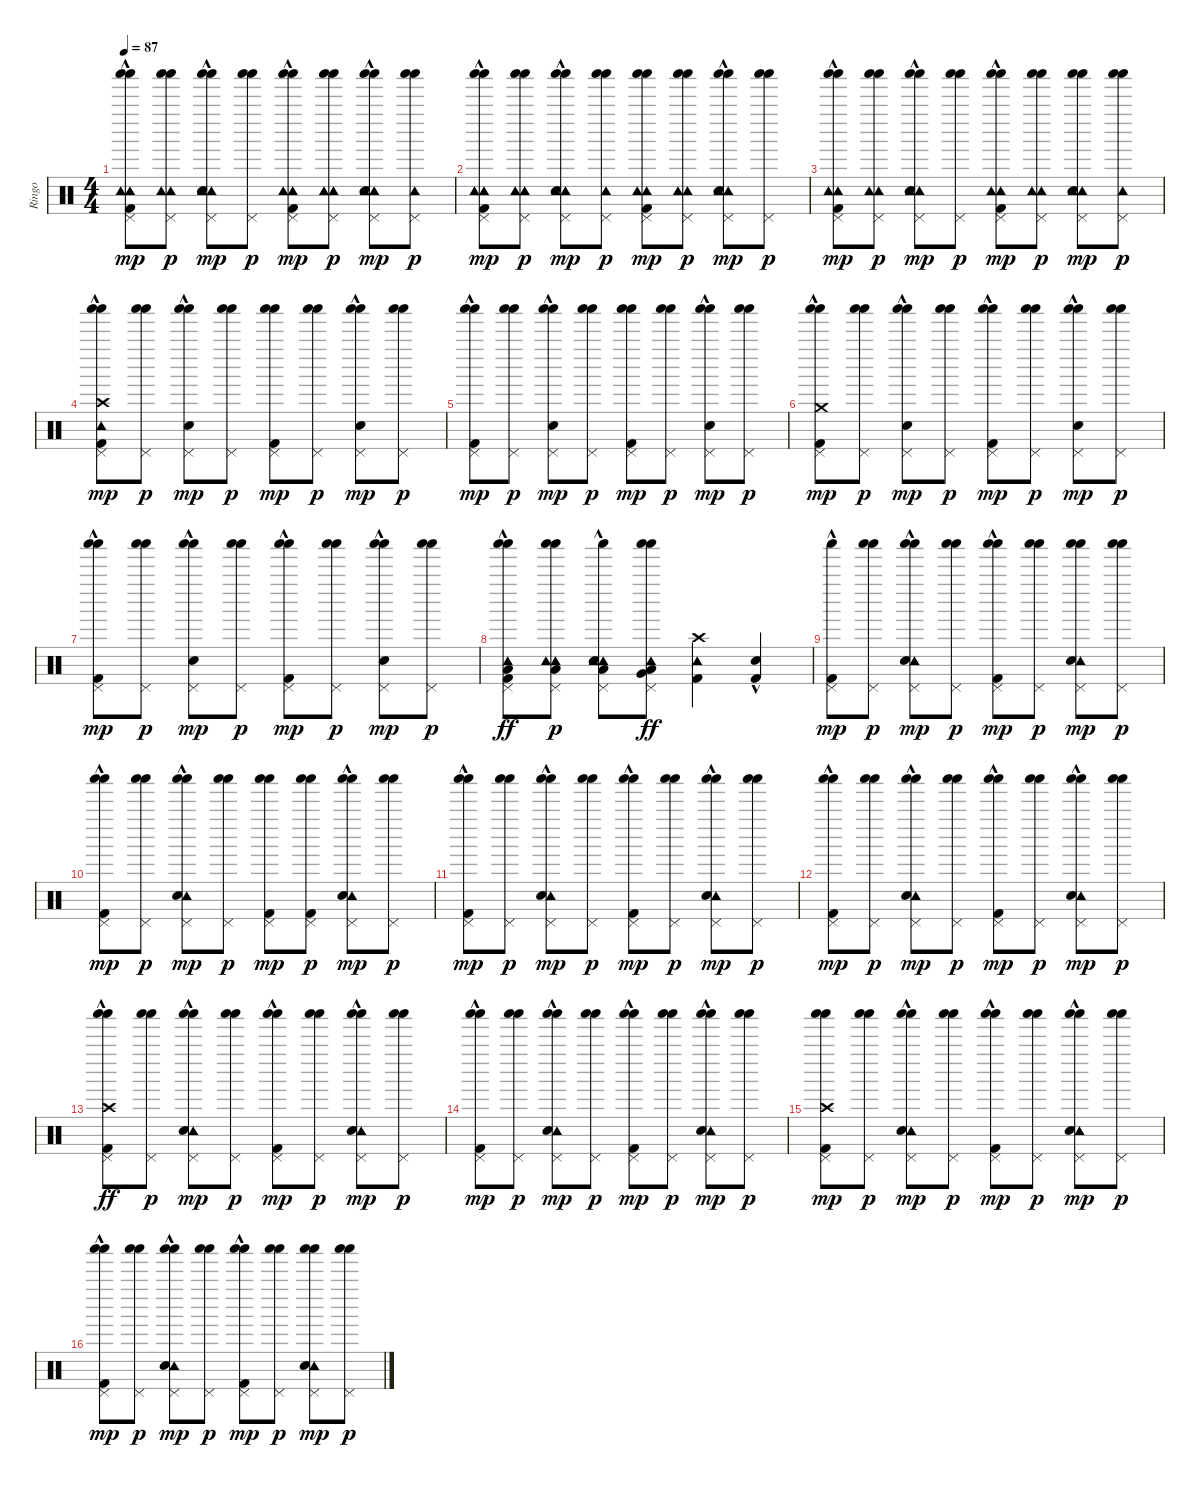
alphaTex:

\track ("Ringo" "Ringo") {instrument percussion}
\staff {score}
\articulation defaults
\ts (4 4)
\tempo 87
\clef neutral
\ks c
("Shaker (hit)" "Tambourine (hit)" "Kick (hit) 2"{hac} "Pedal Hi-Hat (hit)" "Tambourine (hit)" "Shaker (hit)").8{dy mp} ("Shaker (hit)" "Tambourine (hit)" "Pedal Hi-Hat (hit)" "Tambourine (hit)" "Shaker (hit)").8{dy p} ("Shaker (hit)" "Tambourine (hit)" "Tambourine (hit)"{hac} "Snare (hit) 2"{hac} "Pedal Hi-Hat (hit)" "Shaker (hit)").8{dy mp} ("Shaker (hit)" "Pedal Hi-Hat (hit)" "Shaker (hit)").8{dy p} ("Shaker (hit)" "Tambourine (hit)" "Kick (hit) 2"{hac} "Pedal Hi-Hat (hit)" "Tambourine (hit)" "Shaker (hit)").8{dy mp} ("Shaker (hit)" "Tambourine (hit)" "Pedal Hi-Hat (hit)" "Tambourine (hit)" "Shaker (hit)").8{dy p} ("Shaker (hit)" "Tambourine (hit)" "Tambourine (hit)" "Snare (hit) 2"{hac} "Pedal Hi-Hat (hit)" "Shaker (hit)").8{dy mp} ("Shaker (hit)" "Pedal Hi-Hat (hit)" "Tambourine (hit)" "Shaker (hit)").8{dy p} |
("Shaker (hit)" "Tambourine (hit)" "Kick (hit) 2"{hac} "Pedal Hi-Hat (hit)" "Tambourine (hit)" "Shaker (hit)").8{dy mp} ("Shaker (hit)" "Tambourine (hit)" "Pedal Hi-Hat (hit)" "Tambourine (hit)" "Shaker (hit)").8{dy p} ("Shaker (hit)" "Tambourine (hit)" "Tambourine (hit)" "Snare (hit) 2"{hac} "Pedal Hi-Hat (hit)" "Shaker (hit)").8{dy mp} ("Shaker (hit)" "Pedal Hi-Hat (hit)" "Tambourine (hit)" "Shaker (hit)").8{dy p} ("Shaker (hit)" "Tambourine (hit)" "Kick (hit) 2" "Pedal Hi-Hat (hit)" "Tambourine (hit)" "Shaker (hit)").8{dy mp} ("Shaker (hit)" "Tambourine (hit)" "Pedal Hi-Hat (hit)" "Tambourine (hit)" "Shaker (hit)").8{dy p} ("Shaker (hit)" "Tambourine (hit)" "Tambourine (hit)"{hac} "Snare (hit) 2"{hac} "Pedal Hi-Hat (hit)" "Shaker (hit)").8{dy mp} ("Shaker (hit)" "Pedal Hi-Hat (hit)" "Shaker (hit)").8{dy p} |
("Shaker (hit)" "Tambourine (hit)" "Kick (hit) 2"{hac} "Pedal Hi-Hat (hit)" "Tambourine (hit)" "Shaker (hit)").8{dy mp} ("Shaker (hit)" "Tambourine (hit)" "Pedal Hi-Hat (hit)" "Tambourine (hit)" "Shaker (hit)").8{dy p} ("Shaker (hit)" "Tambourine (hit)" "Tambourine (hit)"{hac} "Snare (hit) 2"{hac} "Pedal Hi-Hat (hit)" "Shaker (hit)").8{dy mp} ("Shaker (hit)" "Pedal Hi-Hat (hit)" "Shaker (hit)").8{dy p} ("Shaker (hit)" "Tambourine (hit)" "Kick (hit) 2"{hac} "Pedal Hi-Hat (hit)" "Tambourine (hit)" "Shaker (hit)").8{dy mp} ("Shaker (hit)" "Tambourine (hit)" "Pedal Hi-Hat (hit)" "Tambourine (hit)" "Shaker (hit)").8{dy p} ("Shaker (hit)" "Tambourine (hit)" "Tambourine (hit)" "Snare (hit) 2" "Pedal Hi-Hat (hit)" "Shaker (hit)").8{dy mp} ("Shaker (hit)" "Pedal Hi-Hat (hit)" "Tambourine (hit)" "Shaker (hit)").8{dy p} |
("Shaker (hit)" "Tambourine (hit)" "Pedal Hi-Hat (hit)" "Crash high (hit)" "Kick (hit) 2"{hac} "Shaker (hit)").8{dy mp} ("Shaker (hit)" "Pedal Hi-Hat (hit)" "Shaker (hit)").8{dy p} ("Shaker (hit)" "Pedal Hi-Hat (hit)" "Snare (hit) 2"{hac} "Shaker (hit)").8{dy mp} ("Shaker (hit)" "Pedal Hi-Hat (hit)" "Shaker (hit)").8{dy p} ("Shaker (hit)" "Pedal Hi-Hat (hit)" "Kick (hit) 2" "Shaker (hit)").8{dy mp} ("Shaker (hit)" "Pedal Hi-Hat (hit)" "Shaker (hit)").8{dy p} ("Shaker (hit)" "Pedal Hi-Hat (hit)" "Snare (hit) 2"{hac} "Shaker (hit)").8{dy mp} ("Shaker (hit)" "Pedal Hi-Hat (hit)" "Shaker (hit)").8{dy p} |
("Shaker (hit)" "Pedal Hi-Hat (hit)" "Kick (hit) 2"{hac} "Shaker (hit)").8{dy mp} ("Shaker (hit)" "Pedal Hi-Hat (hit)" "Shaker (hit)").8{dy p} ("Shaker (hit)" "Pedal Hi-Hat (hit)" "Snare (hit) 2"{hac} "Shaker (hit)").8{dy mp} ("Shaker (hit)" "Pedal Hi-Hat (hit)" "Shaker (hit)").8{dy p} ("Shaker (hit)" "Pedal Hi-Hat (hit)" "Kick (hit) 2" "Shaker (hit)").8{dy mp} ("Shaker (hit)" "Pedal Hi-Hat (hit)" "Shaker (hit)").8{dy p} ("Shaker (hit)" "Pedal Hi-Hat (hit)" "Snare (hit) 2"{hac} "Shaker (hit)").8{dy mp} ("Shaker (hit)" "Pedal Hi-Hat (hit)" "Shaker (hit)").8{dy p} |
("Shaker (hit)" "Crash medium (hit)"{hac} "Pedal Hi-Hat (hit)" "Kick (hit) 2"{hac} "Shaker (hit)").8{dy mp} ("Shaker (hit)" "Pedal Hi-Hat (hit)" "Shaker (hit)").8{dy p} ("Shaker (hit)" "Pedal Hi-Hat (hit)" "Snare (hit) 2"{hac} "Shaker (hit)").8{dy mp} ("Shaker (hit)" "Pedal Hi-Hat (hit)" "Shaker (hit)").8{dy p} ("Shaker (hit)" "Pedal Hi-Hat (hit)" "Kick (hit) 2"{hac} "Shaker (hit)").8{dy mp} ("Shaker (hit)" "Pedal Hi-Hat (hit)" "Shaker (hit)").8{dy p} ("Shaker (hit)" "Pedal Hi-Hat (hit)" "Snare (hit) 2"{hac} "Shaker (hit)").8{dy mp} ("Shaker (hit)" "Pedal Hi-Hat (hit)" "Shaker (hit)").8{dy p} |
("Shaker (hit)" "Pedal Hi-Hat (hit)" "Kick (hit) 2"{hac} "Shaker (hit)").8{dy mp} ("Shaker (hit)" "Pedal Hi-Hat (hit)" "Shaker (hit)").8{dy p} ("Shaker (hit)" "Pedal Hi-Hat (hit)" "Snare (hit) 2"{hac} "Shaker (hit)").8{dy mp} ("Shaker (hit)" "Pedal Hi-Hat (hit)" "Shaker (hit)").8{dy p} ("Shaker (hit)" "Pedal Hi-Hat (hit)" "Kick (hit) 2"{hac} "Shaker (hit)").8{dy mp} ("Shaker (hit)" "Pedal Hi-Hat (hit)" "Shaker (hit)").8{dy p} ("Shaker (hit)" "Pedal Hi-Hat (hit)" "Snare (hit) 2"{hac} "Shaker (hit)").8{dy mp} ("Shaker (hit)" "Pedal Hi-Hat (hit)" "Shaker (hit)").8{dy p} |
("Shaker (hit)" "Tambourine (hit)" "Shaker (hit)" "Low Tom (hit)" "Pedal Hi-Hat (hit)" "Kick (hit) 2"{hac}).8{dy ff} ("Tambourine (hit)" "Low Tom (hit)" "Pedal Hi-Hat (hit)" "Shaker (hit)" "Tambourine (hit)" "Shaker (hit)").8{dy p} ("Tambourine (hit)" "Low Tom (hit)" "Pedal Hi-Hat (hit)" "Snare (hit) 2"{hac} "Shaker (hit)" "Tambourine (hit)").8 ("Tambourine (hit)" "Low Tom (hit)" "Pedal Hi-Hat (hit)" "Shaker (hit)" "Shaker (hit)" "Very Low Tom (hit)").8{dy ff} ("Tambourine (hit)" "Crash high (hit)" "Kick (hit) 2").4 ("Kick (hit) 2"{hac} "Snare (hit) 2"{hac}).4 |
("Pedal Hi-Hat (hit)" "Kick (hit) 2"{hac} "Shaker (hit)").8{dy mp} ("Shaker (hit)" "Pedal Hi-Hat (hit)" "Shaker (hit)").8{dy p} ("Shaker (hit)" "Tambourine (hit)" "Pedal Hi-Hat (hit)" "Snare (hit) 2"{hac} "Shaker (hit)").8{dy mp} ("Shaker (hit)" "Pedal Hi-Hat (hit)" "Shaker (hit)").8{dy p} ("Shaker (hit)" "Pedal Hi-Hat (hit)" "Kick (hit) 2"{hac} "Shaker (hit)").8{dy mp} ("Shaker (hit)" "Pedal Hi-Hat (hit)" "Shaker (hit)").8{dy p} ("Shaker (hit)" "Tambourine (hit)" "Pedal Hi-Hat (hit)" "Snare (hit) 2" "Shaker (hit)").8{dy mp} ("Shaker (hit)" "Pedal Hi-Hat (hit)" "Shaker (hit)").8{dy p} |
("Shaker (hit)" "Pedal Hi-Hat (hit)" "Kick (hit) 2"{hac} "Shaker (hit)").8{dy mp} ("Shaker (hit)" "Pedal Hi-Hat (hit)" "Shaker (hit)").8{dy p} ("Shaker (hit)" "Tambourine (hit)" "Pedal Hi-Hat (hit)" "Snare (hit) 2"{hac} "Shaker (hit)").8{dy mp} ("Shaker (hit)" "Pedal Hi-Hat (hit)" "Shaker (hit)").8{dy p} ("Shaker (hit)" "Pedal Hi-Hat (hit)" "Kick (hit) 2" "Shaker (hit)").8{dy mp} ("Shaker (hit)" "Pedal Hi-Hat (hit)" "Kick (hit) 2" "Shaker (hit)").8{dy p} ("Shaker (hit)" "Tambourine (hit)" "Pedal Hi-Hat (hit)" "Snare (hit) 2"{hac} "Shaker (hit)").8{dy mp} ("Shaker (hit)" "Pedal Hi-Hat (hit)" "Shaker (hit)").8{dy p} |
("Shaker (hit)" "Pedal Hi-Hat (hit)" "Kick (hit) 2"{hac} "Shaker (hit)").8{dy mp} ("Shaker (hit)" "Pedal Hi-Hat (hit)" "Shaker (hit)").8{dy p} ("Shaker (hit)" "Tambourine (hit)"{hac} "Pedal Hi-Hat (hit)" "Snare (hit) 2"{hac} "Shaker (hit)").8{dy mp} ("Shaker (hit)" "Pedal Hi-Hat (hit)" "Shaker (hit)").8{dy p} ("Shaker (hit)" "Pedal Hi-Hat (hit)" "Kick (hit) 2"{hac} "Shaker (hit)").8{dy mp} ("Shaker (hit)" "Pedal Hi-Hat (hit)" "Shaker (hit)").8{dy p} ("Shaker (hit)" "Tambourine (hit)" "Pedal Hi-Hat (hit)" "Snare (hit) 2"{hac} "Shaker (hit)").8{dy mp} ("Shaker (hit)" "Pedal Hi-Hat (hit)" "Shaker (hit)").8{dy p} |
("Shaker (hit)" "Pedal Hi-Hat (hit)" "Kick (hit) 2"{hac} "Shaker (hit)").8{dy mp} ("Shaker (hit)" "Pedal Hi-Hat (hit)" "Shaker (hit)").8{dy p} ("Shaker (hit)" "Tambourine (hit)"{hac} "Pedal Hi-Hat (hit)" "Snare (hit) 2" "Shaker (hit)").8{dy mp} ("Shaker (hit)" "Pedal Hi-Hat (hit)" "Shaker (hit)").8{dy p} ("Shaker (hit)" "Pedal Hi-Hat (hit)" "Kick (hit) 2"{hac} "Shaker (hit)").8{dy mp} ("Shaker (hit)" "Pedal Hi-Hat (hit)" "Shaker (hit)").8{dy p} ("Shaker (hit)" "Tambourine (hit)"{hac} "Pedal Hi-Hat (hit)" "Snare (hit) 2"{hac} "Shaker (hit)").8{dy mp} ("Shaker (hit)" "Pedal Hi-Hat (hit)" "Shaker (hit)").8{dy p} |
("Shaker (hit)" "Pedal Hi-Hat (hit)" "Kick (hit) 2"{hac} "Shaker (hit)" "Crash high (hit)").8{dy ff} ("Shaker (hit)" "Pedal Hi-Hat (hit)" "Shaker (hit)").8{dy p} ("Shaker (hit)" "Tambourine (hit)" "Pedal Hi-Hat (hit)" "Snare (hit) 2"{hac} "Shaker (hit)").8{dy mp} ("Shaker (hit)" "Pedal Hi-Hat (hit)" "Shaker (hit)").8{dy p} ("Shaker (hit)" "Pedal Hi-Hat (hit)" "Kick (hit) 2"{hac} "Shaker (hit)").8{dy mp} ("Shaker (hit)" "Pedal Hi-Hat (hit)" "Shaker (hit)").8{dy p} ("Shaker (hit)" "Tambourine (hit)" "Pedal Hi-Hat (hit)" "Snare (hit) 2"{hac} "Shaker (hit)").8{dy mp} ("Shaker (hit)" "Pedal Hi-Hat (hit)" "Shaker (hit)").8{dy p} |
("Shaker (hit)" "Pedal Hi-Hat (hit)" "Kick (hit) 2"{hac} "Shaker (hit)").8{dy mp} ("Shaker (hit)" "Pedal Hi-Hat (hit)" "Shaker (hit)").8{dy p} ("Shaker (hit)" "Tambourine (hit)" "Pedal Hi-Hat (hit)" "Snare (hit) 2"{hac} "Shaker (hit)").8{dy mp} ("Shaker (hit)" "Pedal Hi-Hat (hit)" "Shaker (hit)").8{dy p} ("Shaker (hit)" "Pedal Hi-Hat (hit)" "Kick (hit) 2"{hac} "Shaker (hit)").8{dy mp} ("Shaker (hit)" "Pedal Hi-Hat (hit)" "Shaker (hit)").8{dy p} ("Shaker (hit)" "Tambourine (hit)" "Pedal Hi-Hat (hit)" "Snare (hit) 2"{hac} "Shaker (hit)").8{dy mp} ("Shaker (hit)" "Pedal Hi-Hat (hit)" "Shaker (hit)").8{dy p} |
("Shaker (hit)" "Crash high (hit)" "Pedal Hi-Hat (hit)" "Kick (hit) 2" "Shaker (hit)").8{dy mp} ("Shaker (hit)" "Pedal Hi-Hat (hit)" "Shaker (hit)").8{dy p} ("Shaker (hit)" "Tambourine (hit)" "Pedal Hi-Hat (hit)" "Snare (hit) 2"{hac} "Shaker (hit)").8{dy mp} ("Shaker (hit)" "Pedal Hi-Hat (hit)" "Shaker (hit)").8{dy p} ("Shaker (hit)" "Pedal Hi-Hat (hit)" "Kick (hit) 2"{hac} "Shaker (hit)").8{dy mp} ("Shaker (hit)" "Pedal Hi-Hat (hit)" "Shaker (hit)").8{dy p} ("Shaker (hit)" "Tambourine (hit)" "Pedal Hi-Hat (hit)" "Snare (hit) 2"{hac} "Shaker (hit)").8{dy mp} ("Shaker (hit)" "Pedal Hi-Hat (hit)" "Shaker (hit)").8{dy p} |
("Shaker (hit)" "Pedal Hi-Hat (hit)" "Kick (hit) 2"{hac} "Shaker (hit)").8{dy mp} ("Shaker (hit)" "Pedal Hi-Hat (hit)" "Shaker (hit)").8{dy p} ("Shaker (hit)" "Tambourine (hit)" "Pedal Hi-Hat (hit)" "Snare (hit) 2"{hac} "Shaker (hit)").8{dy mp} ("Shaker (hit)" "Pedal Hi-Hat (hit)" "Shaker (hit)").8{dy p} ("Shaker (hit)" "Pedal Hi-Hat (hit)" "Kick (hit) 2"{hac} "Shaker (hit)").8{dy mp} ("Shaker (hit)" "Pedal Hi-Hat (hit)" "Shaker (hit)").8{dy p} ("Shaker (hit)" "Tambourine (hit)" "Pedal Hi-Hat (hit)" "Snare (hit) 2" "Shaker (hit)").8{dy mp} ("Shaker (hit)" "Pedal Hi-Hat (hit)" "Shaker (hit)").8{dy p}
